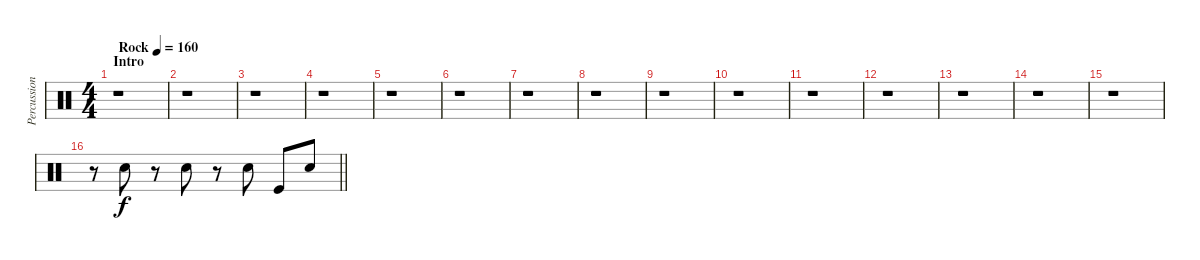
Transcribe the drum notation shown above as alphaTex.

\track ("Percussion" "Percussion") {instrument percussion}
\staff {score}
\articulation defaults
\ts (4 4)
\section ("" "Intro")
\tempo (160 "Rock")
\clef neutral
\ks c
r.1{dy f} |
r.1 |
r.1 |
r.1 |
r.1 |
r.1 |
r.1 |
r.1 |
r.1 |
r.1 |
r.1 |
r.1 |
r.1 |
r.1 |
r.1 |
\barLineRight lightlight
r.8 "Snare (hit) 2".8 r.8 "Snare (hit) 2".8 r.8 "Snare (hit) 2".8 "Kick (hit)".8 "Snare (hit) 2".8
